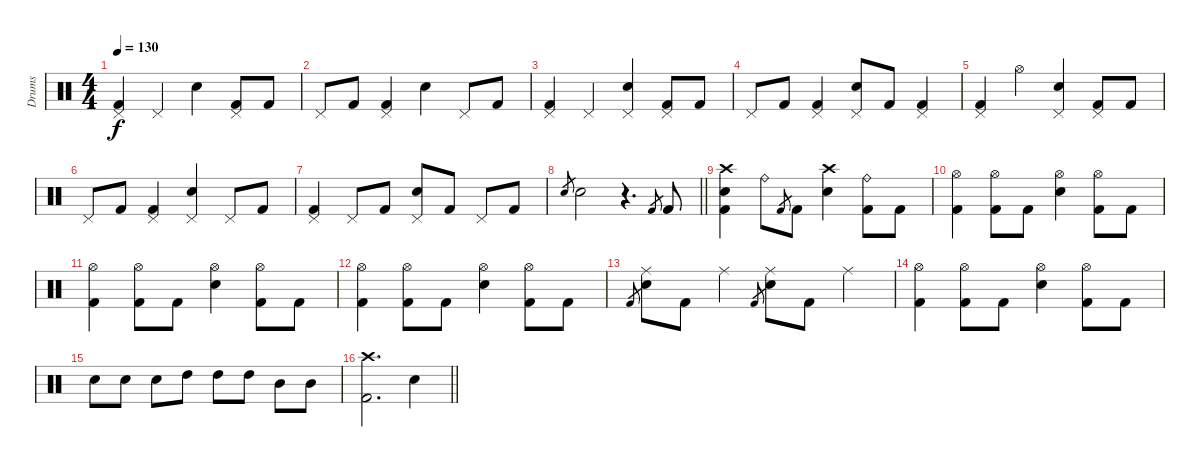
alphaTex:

\track ("Drums" "Drums") {instrument percussion}
\staff {score}
\articulation defaults
\ts (4 4)
\tempo 130
\clef neutral
\ks c
("Pedal Hi-Hat (hit)" "Kick (hit) 2").4{dy f} "Pedal Hi-Hat (hit)".4 "Electric Snare (hit)".4 ("Pedal Hi-Hat (hit)" "Kick (hit) 2").8 "Kick (hit) 2".8 |
"Pedal Hi-Hat (hit)".8 "Kick (hit) 2".8 ("Pedal Hi-Hat (hit)" "Kick (hit) 2").4 "Electric Snare (hit)".4 "Pedal Hi-Hat (hit)".8 "Kick (hit) 2".8 |
("Pedal Hi-Hat (hit)" "Kick (hit) 2").4 "Pedal Hi-Hat (hit)".4 ("Pedal Hi-Hat (hit)" "Electric Snare (hit)").4 ("Pedal Hi-Hat (hit)" "Kick (hit) 2").8 "Kick (hit) 2".8 |
"Pedal Hi-Hat (hit)".8 "Kick (hit) 2".8 ("Pedal Hi-Hat (hit)" "Kick (hit) 2").4 ("Pedal Hi-Hat (hit)" "Electric Snare (hit)").8 "Kick (hit) 2".8 ("Pedal Hi-Hat (hit)" "Kick (hit) 2").4 |
("Pedal Hi-Hat (hit)" "Kick (hit) 2").4 "Hi-Hat (open)".4 ("Pedal Hi-Hat (hit)" "Electric Snare (hit)").4 ("Pedal Hi-Hat (hit)" "Kick (hit) 2").8 "Kick (hit) 2".8 |
"Pedal Hi-Hat (hit)".8 "Kick (hit) 2".8 ("Pedal Hi-Hat (hit)" "Kick (hit) 2").4 ("Pedal Hi-Hat (hit)" "Electric Snare (hit)").4 "Pedal Hi-Hat (hit)".8 "Kick (hit) 2".8 |
("Pedal Hi-Hat (hit)" "Kick (hit) 2").4 "Pedal Hi-Hat (hit)".8 "Kick (hit) 2".8 ("Pedal Hi-Hat (hit)" "Electric Snare (hit)").8 "Kick (hit) 2".8 "Pedal Hi-Hat (hit)".8 "Kick (hit) 2".8 |
\barLineRight lightlight "Electric Snare (hit)".8{gr} "Electric Snare (hit)".2
r.4{d} "Kick (hit) 2".8{gr} "Kick (hit) 2".8 |
("Crash high (hit)" "Electric Snare (hit)" "Kick (hit) 2").4 "Ride (bell)".8 "Kick (hit) 2".8{gr} "Kick (hit) 2".8 ("Crash high (hit)" "Electric Snare (hit)").4 ("Ride (bell)" "Kick (hit) 2").8 "Kick (hit) 2".8 |
("Hi-Hat (open)" "Kick (hit) 2").4 ("Hi-Hat (open)" "Kick (hit) 2").8 "Kick (hit) 2".8 ("Hi-Hat (open)" "Electric Snare (hit)").4 ("Hi-Hat (open)" "Kick (hit) 2").8 "Kick (hit) 2".8 |
("Hi-Hat (open)" "Kick (hit) 2").4 ("Hi-Hat (open)" "Kick (hit) 2").8 "Kick (hit) 2".8 ("Hi-Hat (open)" "Electric Snare (hit)").4 ("Hi-Hat (open)" "Kick (hit) 2").8 "Kick (hit) 2".8 |
("Hi-Hat (open)" "Kick (hit) 2").4 ("Hi-Hat (open)" "Kick (hit) 2").8 "Kick (hit) 2".8 ("Hi-Hat (open)" "Electric Snare (hit)").4 ("Hi-Hat (open)" "Kick (hit) 2").8 "Kick (hit) 2".8 |
"Kick (hit) 2".8{gr} ("Ride (middle)" "Electric Snare (hit)").8 "Kick (hit) 2".8 "Ride (middle)".4 "Kick (hit) 2".8{gr} ("Ride (middle)" "Electric Snare (hit)").8 "Kick (hit) 2".8 "Ride (middle)".4 |
("Hi-Hat (open)" "Kick (hit) 2").4 ("Hi-Hat (open)" "Kick (hit) 2").8 "Kick (hit) 2".8 ("Hi-Hat (open)" "Electric Snare (hit)").4 ("Hi-Hat (open)" "Kick (hit) 2").8 "Kick (hit) 2".8 |
"Electric Snare (hit)".8 "Electric Snare (hit)".8 "Electric Snare (hit)".8 "High Tom (hit)".8 "High Tom (hit)".8 "High Tom (hit)".8 "Mid Tom (hit)".8 "Mid Tom (hit)".8 |
\barLineRight lightlight
("Crash high (hit)" "Kick (hit) 2").2{d} "Electric Snare (hit)".4
